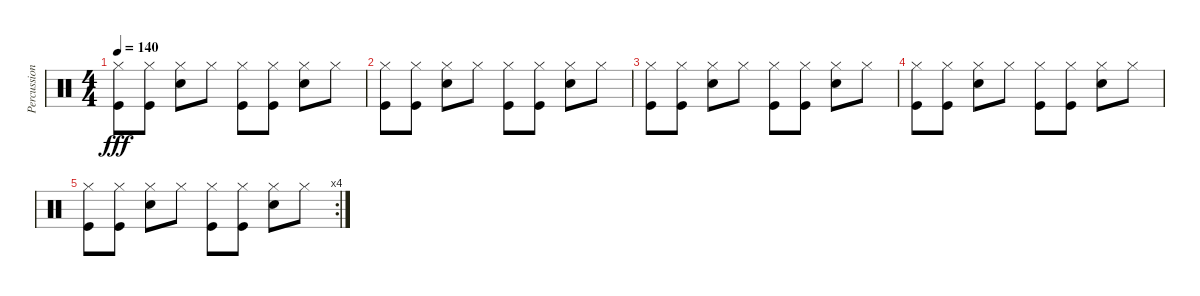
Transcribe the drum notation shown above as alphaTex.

\track ("Percussion" "Percussion") {instrument percussion}
\staff {score}
\articulation defaults
\ts (4 4)
\tempo 140
\clef neutral
\ks c
("Hi-Hat (closed)" "Kick (hit)").8{dy fff} ("Hi-Hat (closed)" "Kick (hit)").8 ("Hi-Hat (closed)" "Snare (hit) 2").8 "Hi-Hat (closed)".8 ("Hi-Hat (closed)" "Kick (hit)").8 ("Hi-Hat (closed)" "Kick (hit)").8 ("Hi-Hat (closed)" "Snare (hit) 2").8 "Hi-Hat (closed)".8 |
("Hi-Hat (closed)" "Kick (hit)").8 ("Hi-Hat (closed)" "Kick (hit)").8 ("Hi-Hat (closed)" "Snare (hit) 2").8 "Hi-Hat (closed)".8 ("Hi-Hat (closed)" "Kick (hit)").8 ("Hi-Hat (closed)" "Kick (hit)").8 ("Hi-Hat (closed)" "Snare (hit) 2").8 "Hi-Hat (closed)".8 |
("Hi-Hat (closed)" "Kick (hit)").8 ("Hi-Hat (closed)" "Kick (hit)").8 ("Hi-Hat (closed)" "Snare (hit) 2").8 "Hi-Hat (closed)".8 ("Hi-Hat (closed)" "Kick (hit)").8 ("Hi-Hat (closed)" "Kick (hit)").8 ("Hi-Hat (closed)" "Snare (hit) 2").8 "Hi-Hat (closed)".8 |
("Hi-Hat (closed)" "Kick (hit)").8 ("Hi-Hat (closed)" "Kick (hit)").8 ("Hi-Hat (closed)" "Snare (hit) 2").8 "Hi-Hat (closed)".8 ("Hi-Hat (closed)" "Kick (hit)").8 ("Hi-Hat (closed)" "Kick (hit)").8 ("Hi-Hat (closed)" "Snare (hit) 2").8 "Hi-Hat (closed)".8 |
\rc 4
("Hi-Hat (closed)" "Kick (hit)").8 ("Hi-Hat (closed)" "Kick (hit)").8 ("Hi-Hat (closed)" "Snare (hit) 2").8 "Hi-Hat (closed)".8 ("Hi-Hat (closed)" "Kick (hit)").8 ("Hi-Hat (closed)" "Kick (hit)").8 ("Hi-Hat (closed)" "Snare (hit) 2").8 "Hi-Hat (closed)".8
